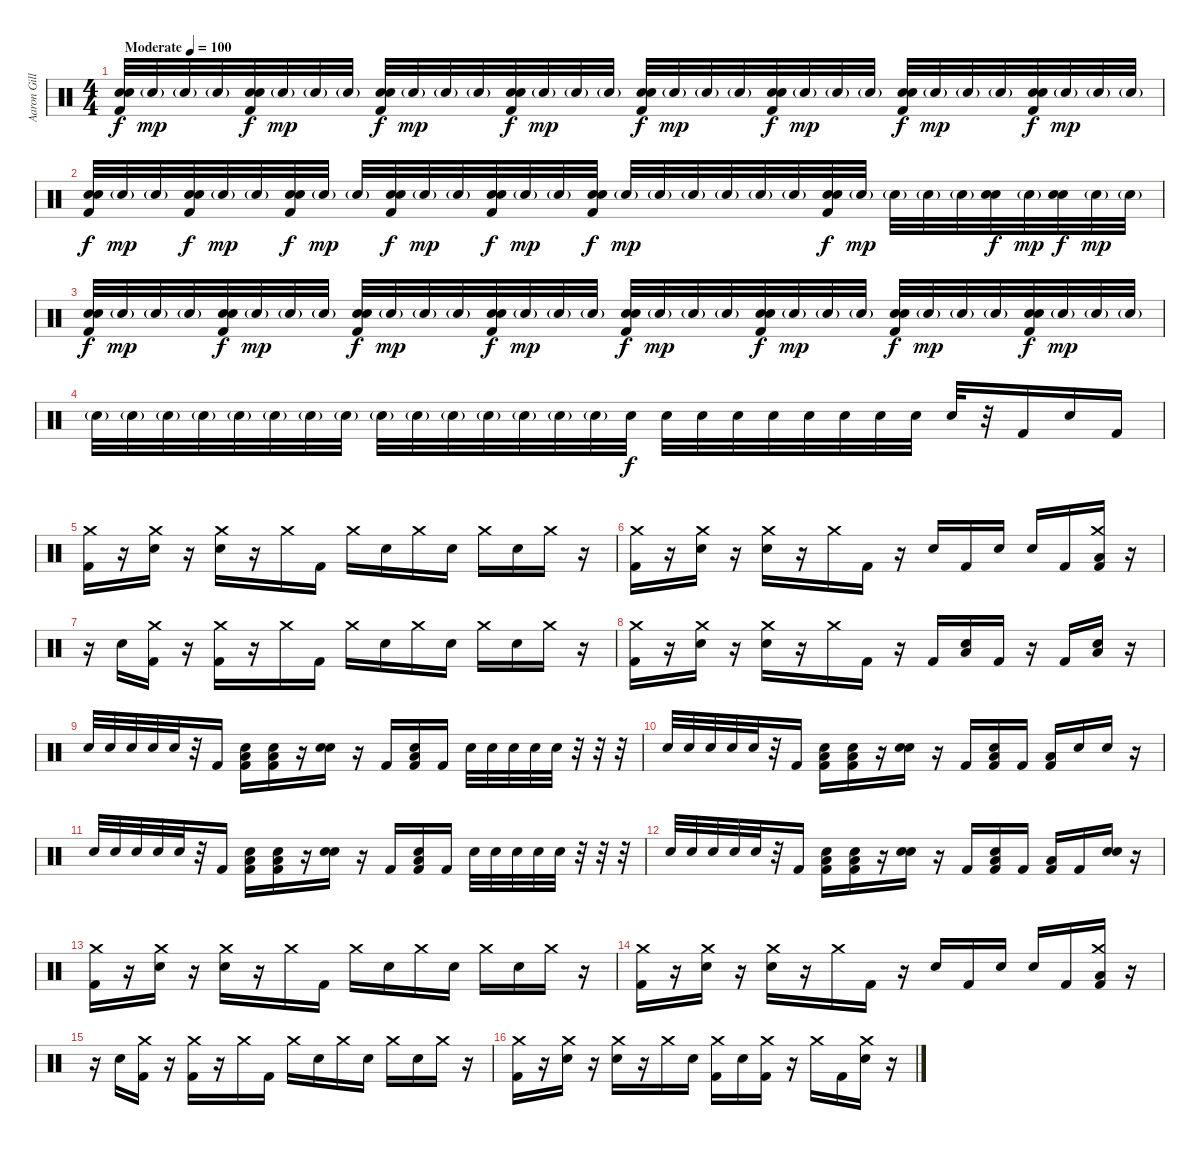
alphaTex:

\track ("Aaron Gillespie" "Aaron Gill") {instrument percussion}
\staff {score}
\articulation defaults
\ts (4 4)
\tempo (100 "Moderate")
\clef neutral
\ks c
("Electric Snare (hit)" "Electric Snare (hit)" "Kick (hit) 2").32{dy f} "Electric Snare (hit)"{g}.32{dy mp} "Electric Snare (hit)"{g}.32 "Electric Snare (hit)"{g}.32 ("Electric Snare (hit)" "Electric Snare (hit)" "Kick (hit) 2").32{dy f} "Electric Snare (hit)"{g}.32{dy mp} "Electric Snare (hit)"{g}.32 "Electric Snare (hit)"{g}.32 ("Electric Snare (hit)" "Electric Snare (hit)" "Kick (hit) 2").32{dy f} "Electric Snare (hit)"{g}.32{dy mp} "Electric Snare (hit)"{g}.32 "Electric Snare (hit)"{g}.32 ("Electric Snare (hit)" "Electric Snare (hit)" "Kick (hit) 2").32{dy f} "Electric Snare (hit)"{g}.32{dy mp} "Electric Snare (hit)"{g}.32 "Electric Snare (hit)"{g}.32 ("Electric Snare (hit)" "Electric Snare (hit)" "Kick (hit) 2").32{dy f} "Electric Snare (hit)"{g}.32{dy mp} "Electric Snare (hit)"{g}.32 "Electric Snare (hit)"{g}.32 ("Electric Snare (hit)" "Electric Snare (hit)" "Kick (hit) 2").32{dy f} "Electric Snare (hit)"{g}.32{dy mp} "Electric Snare (hit)"{g}.32 "Electric Snare (hit)"{g}.32 ("Electric Snare (hit)" "Electric Snare (hit)" "Kick (hit) 2").32{dy f} "Electric Snare (hit)"{g}.32{dy mp} "Electric Snare (hit)"{g}.32 "Electric Snare (hit)"{g}.32 ("Electric Snare (hit)" "Electric Snare (hit)" "Kick (hit) 2").32{dy f} "Electric Snare (hit)"{g}.32{dy mp} "Electric Snare (hit)"{g}.32 "Electric Snare (hit)"{g}.32 |
("Electric Snare (hit)" "Electric Snare (hit)" "Kick (hit) 2").32{dy f} "Electric Snare (hit)"{g}.32{dy mp} "Electric Snare (hit)"{g}.32 ("Electric Snare (hit)" "Electric Snare (hit)" "Kick (hit) 2").32{dy f} "Electric Snare (hit)"{g}.32{dy mp} "Electric Snare (hit)"{g}.32 ("Electric Snare (hit)" "Electric Snare (hit)" "Kick (hit) 2").32{dy f} "Electric Snare (hit)"{g}.32{dy mp} "Electric Snare (hit)"{g}.32 ("Electric Snare (hit)" "Electric Snare (hit)" "Kick (hit) 2").32{dy f} "Electric Snare (hit)"{g}.32{dy mp} "Electric Snare (hit)"{g}.32 ("Electric Snare (hit)" "Electric Snare (hit)" "Kick (hit) 2").32{dy f} "Electric Snare (hit)"{g}.32{dy mp} "Electric Snare (hit)"{g}.32 ("Electric Snare (hit)" "Electric Snare (hit)" "Kick (hit) 2").32{dy f} "Electric Snare (hit)"{g}.32{dy mp} "Electric Snare (hit)"{g}.32 "Electric Snare (hit)"{g}.32 "Electric Snare (hit)"{g}.32 "Electric Snare (hit)"{g}.32 "Electric Snare (hit)"{g}.32 ("Electric Snare (hit)" "Electric Snare (hit)" "Kick (hit) 2").32{dy f} "Electric Snare (hit)"{g}.32{dy mp} "Electric Snare (hit)"{g}.32 "Electric Snare (hit)"{g}.32 "Electric Snare (hit)"{g}.32 ("Electric Snare (hit)" "Electric Snare (hit)").32{dy f} "Electric Snare (hit)"{g}.32{dy mp} ("Electric Snare (hit)" "Electric Snare (hit)").32{dy f} "Electric Snare (hit)"{g}.32{dy mp} "Electric Snare (hit)"{g}.32 |
("Electric Snare (hit)" "Electric Snare (hit)" "Kick (hit) 2").32{dy f} "Electric Snare (hit)"{g}.32{dy mp} "Electric Snare (hit)"{g}.32 "Electric Snare (hit)"{g}.32 ("Electric Snare (hit)" "Electric Snare (hit)" "Kick (hit) 2").32{dy f} "Electric Snare (hit)"{g}.32{dy mp} "Electric Snare (hit)"{g}.32 "Electric Snare (hit)"{g}.32 ("Electric Snare (hit)" "Electric Snare (hit)" "Kick (hit) 2").32{dy f} "Electric Snare (hit)"{g}.32{dy mp} "Electric Snare (hit)"{g}.32 "Electric Snare (hit)"{g}.32 ("Electric Snare (hit)" "Electric Snare (hit)" "Kick (hit) 2").32{dy f} "Electric Snare (hit)"{g}.32{dy mp} "Electric Snare (hit)"{g}.32 "Electric Snare (hit)"{g}.32 ("Electric Snare (hit)" "Electric Snare (hit)" "Kick (hit) 2").32{dy f} "Electric Snare (hit)"{g}.32{dy mp} "Electric Snare (hit)"{g}.32 "Electric Snare (hit)"{g}.32 ("Electric Snare (hit)" "Electric Snare (hit)" "Kick (hit) 2").32{dy f} "Electric Snare (hit)"{g}.32{dy mp} "Electric Snare (hit)"{g}.32 "Electric Snare (hit)"{g}.32 ("Electric Snare (hit)" "Electric Snare (hit)" "Kick (hit) 2").32{dy f} "Electric Snare (hit)"{g}.32{dy mp} "Electric Snare (hit)"{g}.32 "Electric Snare (hit)"{g}.32 ("Electric Snare (hit)" "Electric Snare (hit)" "Kick (hit) 2").32{dy f} "Electric Snare (hit)"{g}.32{dy mp} "Electric Snare (hit)"{g}.32 "Electric Snare (hit)"{g}.32 |
"Electric Snare (hit)"{g}.32 "Electric Snare (hit)"{g}.32 "Electric Snare (hit)"{g}.32 "Electric Snare (hit)"{g}.32 "Electric Snare (hit)"{g}.32 "Electric Snare (hit)"{g}.32 "Electric Snare (hit)"{g}.32 "Electric Snare (hit)"{g}.32 "Electric Snare (hit)"{g}.32 "Electric Snare (hit)"{g}.32 "Electric Snare (hit)"{g}.32 "Electric Snare (hit)"{g}.32 "Electric Snare (hit)"{g}.32 "Electric Snare (hit)"{g}.32 "Electric Snare (hit)"{g}.32 "Electric Snare (hit)".32{dy f} "Electric Snare (hit)".32 "Electric Snare (hit)".32 "Electric Snare (hit)".32 "Electric Snare (hit)".32 "Electric Snare (hit)".32 "Electric Snare (hit)".32 "Electric Snare (hit)".32 "Electric Snare (hit)".32 "Electric Snare (hit)".32 r.32 "Kick (hit) 2".16 "Electric Snare (hit)".16 "Kick (hit) 2".16 |
("Crash medium (hit)" "Kick (hit) 2").16 r.16 ("Crash medium (hit)" "Electric Snare (hit)").16 r.16 ("Crash medium (hit)" "Electric Snare (hit)").16 r.16 "Crash medium (hit)".16 "Kick (hit) 2".16 "Crash medium (hit)".16 "Electric Snare (hit)".16 "Crash medium (hit)".16 "Electric Snare (hit)".16 "Crash medium (hit)".16 "Electric Snare (hit)".16 "Crash medium (hit)".16 r.16 |
("Crash medium (hit)" "Kick (hit) 2").16 r.16 ("Crash medium (hit)" "Electric Snare (hit)").16 r.16 ("Crash medium (hit)" "Electric Snare (hit)").16 r.16 "Crash medium (hit)".16 "Kick (hit) 2".16 r.16 "Electric Snare (hit)".16 "Kick (hit) 2".16 "Electric Snare (hit)".16 "Electric Snare (hit)".16 "Kick (hit) 2".16 ("Crash medium (hit)" "Low Floor Tom (hit)" "Kick (hit) 2").16 r.16 |
r.16 "Electric Snare (hit)".16 ("Crash medium (hit)" "Kick (hit) 2").16 r.16 ("Crash medium (hit)" "Kick (hit) 2").16 r.16 "Crash medium (hit)".16 "Kick (hit) 2".16 "Crash medium (hit)".16 "Electric Snare (hit)".16 "Crash medium (hit)".16 "Electric Snare (hit)".16 "Crash medium (hit)".16 "Electric Snare (hit)".16 "Crash medium (hit)".16 r.16 |
("Crash medium (hit)" "Kick (hit) 2").16 r.16 ("Crash medium (hit)" "Electric Snare (hit)").16 r.16 ("Crash medium (hit)" "Electric Snare (hit)").16 r.16 "Crash medium (hit)".16 "Kick (hit) 2".16 r.16 "Kick (hit) 2".16 ("Low Floor Tom (hit)" "Electric Snare (hit)").16 "Kick (hit) 2".16 r.16 "Kick (hit) 2".16 ("Low Floor Tom (hit)" "Electric Snare (hit)").16 r.16 |
"Electric Snare (hit)".32 "Electric Snare (hit)".32 "Electric Snare (hit)".32 "Electric Snare (hit)".32 "Electric Snare (hit)".32 r.32 "Kick (hit) 2".16 ("Low Floor Tom (hit)" "Electric Snare (hit)" "Kick (hit) 2").16 ("Low Floor Tom (hit)" "Electric Snare (hit)" "Kick (hit) 2").16 r.16 ("Electric Snare (hit)" "Electric Snare (hit)").16 r.16 "Kick (hit) 2".16 ("Low Floor Tom (hit)" "Electric Snare (hit)" "Kick (hit) 2").16 "Kick (hit) 2".16 "Electric Snare (hit)".32 "Electric Snare (hit)".32 "Electric Snare (hit)".32 "Electric Snare (hit)".32 "Electric Snare (hit)".32 r.32 r.32 r.32 |
"Electric Snare (hit)".32 "Electric Snare (hit)".32 "Electric Snare (hit)".32 "Electric Snare (hit)".32 "Electric Snare (hit)".32 r.32 "Kick (hit) 2".16 ("Low Floor Tom (hit)" "Electric Snare (hit)" "Kick (hit) 2").16 ("Low Floor Tom (hit)" "Electric Snare (hit)" "Kick (hit) 2").16 r.16 ("Electric Snare (hit)" "Electric Snare (hit)").16 r.16 "Kick (hit) 2".16 ("Low Floor Tom (hit)" "Electric Snare (hit)" "Kick (hit) 2").16 "Kick (hit) 2".16 ("Low Floor Tom (hit)" "Kick (hit) 2").16 "Electric Snare (hit)".16 "Electric Snare (hit)".16 r.16 |
"Electric Snare (hit)".32 "Electric Snare (hit)".32 "Electric Snare (hit)".32 "Electric Snare (hit)".32 "Electric Snare (hit)".32 r.32 "Kick (hit) 2".16 ("Low Floor Tom (hit)" "Electric Snare (hit)" "Kick (hit) 2").16 ("Low Floor Tom (hit)" "Electric Snare (hit)" "Kick (hit) 2").16 r.16 ("Electric Snare (hit)" "Electric Snare (hit)").16 r.16 "Kick (hit) 2".16 ("Low Floor Tom (hit)" "Electric Snare (hit)" "Kick (hit) 2").16 "Kick (hit) 2".16 "Electric Snare (hit)".32 "Electric Snare (hit)".32 "Electric Snare (hit)".32 "Electric Snare (hit)".32 "Electric Snare (hit)".32 r.32 r.32 r.32 |
"Electric Snare (hit)".32 "Electric Snare (hit)".32 "Electric Snare (hit)".32 "Electric Snare (hit)".32 "Electric Snare (hit)".32 r.32 "Kick (hit) 2".16 ("Low Floor Tom (hit)" "Electric Snare (hit)" "Kick (hit) 2").16 ("Low Floor Tom (hit)" "Electric Snare (hit)" "Kick (hit) 2").16 r.16 ("Electric Snare (hit)" "Electric Snare (hit)").16 r.16 "Kick (hit) 2".16 ("Low Floor Tom (hit)" "Electric Snare (hit)" "Kick (hit) 2").16 "Kick (hit) 2".16 ("Low Floor Tom (hit)" "Kick (hit) 2").16 "Kick (hit) 2".16 ("Electric Snare (hit)" "Electric Snare (hit)").16 r.16 |
("Crash medium (hit)" "Kick (hit) 2").16 r.16 ("Crash medium (hit)" "Electric Snare (hit)").16 r.16 ("Crash medium (hit)" "Electric Snare (hit)").16 r.16 "Crash medium (hit)".16 "Kick (hit) 2".16 "Crash medium (hit)".16 "Electric Snare (hit)".16 "Crash medium (hit)".16 "Electric Snare (hit)".16 "Crash medium (hit)".16 "Electric Snare (hit)".16 "Crash medium (hit)".16 r.16 |
("Crash medium (hit)" "Kick (hit) 2").16 r.16 ("Crash medium (hit)" "Electric Snare (hit)").16 r.16 ("Crash medium (hit)" "Electric Snare (hit)").16 r.16 "Crash medium (hit)".16 "Kick (hit) 2".16 r.16 "Electric Snare (hit)".16 "Kick (hit) 2".16 "Electric Snare (hit)".16 "Electric Snare (hit)".16 "Kick (hit) 2".16 ("Crash medium (hit)" "Low Floor Tom (hit)" "Kick (hit) 2").16 r.16 |
r.16 "Electric Snare (hit)".16 ("Crash medium (hit)" "Kick (hit) 2").16 r.16 ("Crash medium (hit)" "Kick (hit) 2").16 r.16 "Crash medium (hit)".16 "Kick (hit) 2".16 "Crash medium (hit)".16 "Electric Snare (hit)".16 "Crash medium (hit)".16 "Electric Snare (hit)".16 "Crash medium (hit)".16 "Electric Snare (hit)".16 "Crash medium (hit)".16 r.16 |
("Crash medium (hit)" "Kick (hit) 2").16 r.16 ("Crash medium (hit)" "Electric Snare (hit)").16 r.16 ("Crash medium (hit)" "Electric Snare (hit)").16 r.16 "Crash medium (hit)".16 "Electric Snare (hit)".16 ("Crash medium (hit)" "Kick (hit) 2").16 "Electric Snare (hit)".16 ("Crash medium (hit)" "Kick (hit) 2").16 r.16 "Crash medium (hit)".16 "Kick (hit) 2".16 ("Crash medium (hit)" "Electric Snare (hit)").16 r.16
